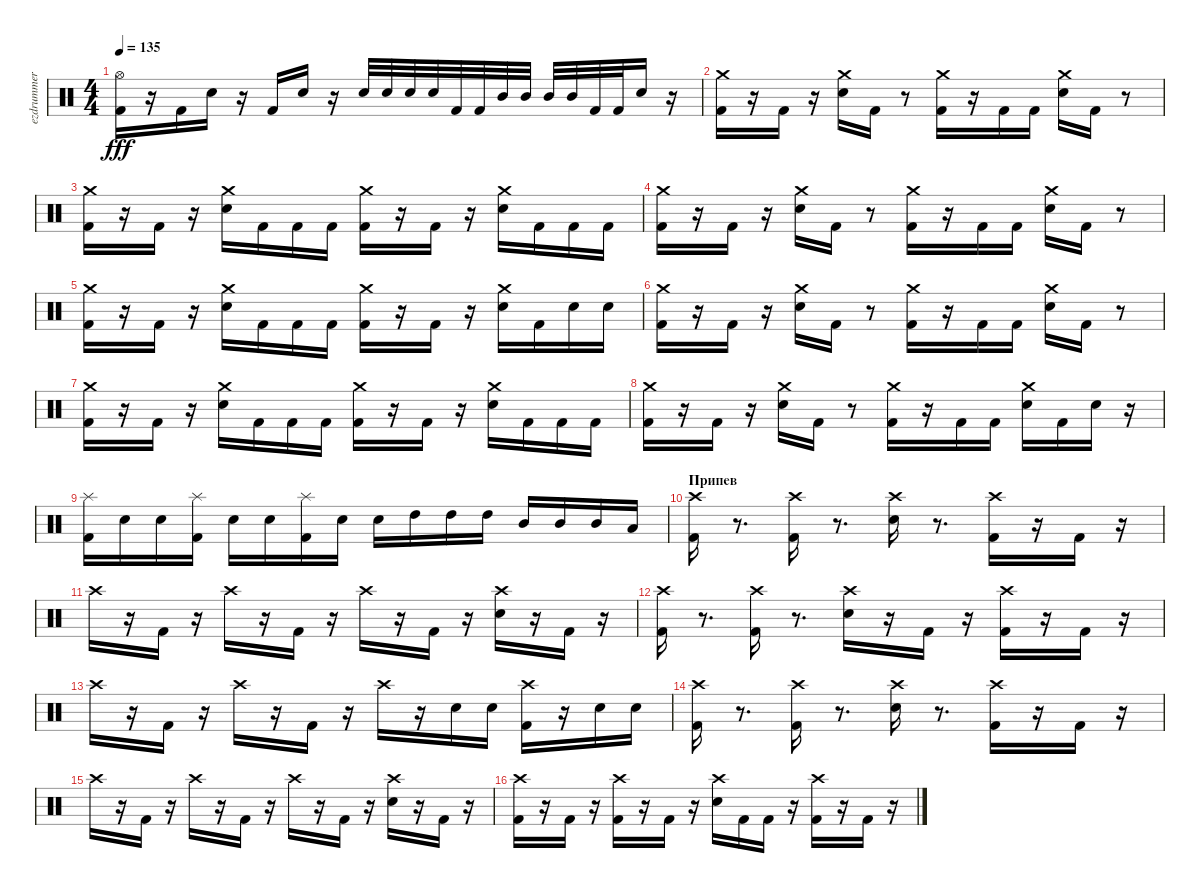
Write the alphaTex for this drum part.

\track ("ezdrummer 01" "ezdrummer ") {instrument percussion}
\staff {score}
\articulation defaults
\ts (4 4)
\tempo 135
\clef neutral
\ks c
("Kick (hit) 2" "Hi-Hat (open)").16{dy fff} r.16 "Kick (hit) 2".16 "Snare (hit) 2".16 r.16 "Kick (hit) 2".16 "Snare (hit) 2".16 r.16 "Snare (hit) 2".32 "Snare (hit) 2".32 "Snare (hit) 2".32 "Snare (hit) 2".32 "Kick (hit) 2".32 "Kick (hit) 2".32 "Mid Tom (hit)".32 "Mid Tom (hit)".32 "Mid Tom (hit)".32 "Mid Tom (hit)".32 "Kick (hit) 2".32 "Kick (hit) 2".32 "Snare (hit) 2".16 r.16 |
("Kick (hit) 2" "Crash medium (hit)").16 r.16 "Kick (hit) 2".16 r.16 ("Snare (hit) 2" "Crash medium (hit)").16 "Kick (hit) 2".16 r.8 ("Kick (hit) 2" "Crash medium (hit)").16 r.16 "Kick (hit) 2".16 "Kick (hit) 2".16 ("Snare (hit) 2" "Crash medium (hit)").16 "Kick (hit) 2".16 r.8 |
("Kick (hit) 2" "Crash medium (hit)").16 r.16 "Kick (hit) 2".16 r.16 ("Snare (hit) 2" "Crash medium (hit)").16 "Kick (hit) 2".16 "Kick (hit) 2".16 "Kick (hit) 2".16 ("Kick (hit) 2" "Crash medium (hit)").16 r.16 "Kick (hit) 2".16 r.16 ("Snare (hit) 2" "Crash medium (hit)").16 "Kick (hit) 2".16 "Kick (hit) 2".16 "Kick (hit) 2".16 |
("Kick (hit) 2" "Crash medium (hit)").16 r.16 "Kick (hit) 2".16 r.16 ("Snare (hit) 2" "Crash medium (hit)").16 "Kick (hit) 2".16 r.8 ("Kick (hit) 2" "Crash medium (hit)").16 r.16 "Kick (hit) 2".16 "Kick (hit) 2".16 ("Snare (hit) 2" "Crash medium (hit)").16 "Kick (hit) 2".16 r.8 |
("Kick (hit) 2" "Crash medium (hit)").16 r.16 "Kick (hit) 2".16 r.16 ("Snare (hit) 2" "Crash medium (hit)").16 "Kick (hit) 2".16 "Kick (hit) 2".16 "Kick (hit) 2".16 ("Kick (hit) 2" "Crash medium (hit)").16 r.16 "Kick (hit) 2".16 r.16 ("Snare (hit) 2" "Crash medium (hit)").16 "Kick (hit) 2".16 "Snare (hit) 2".16 "Snare (hit) 2".16 |
("Kick (hit) 2" "Crash medium (hit)").16 r.16 "Kick (hit) 2".16 r.16 ("Snare (hit) 2" "Crash medium (hit)").16 "Kick (hit) 2".16 r.8 ("Kick (hit) 2" "Crash medium (hit)").16 r.16 "Kick (hit) 2".16 "Kick (hit) 2".16 ("Snare (hit) 2" "Crash medium (hit)").16 "Kick (hit) 2".16 r.8 |
("Kick (hit) 2" "Crash medium (hit)").16 r.16 "Kick (hit) 2".16 r.16 ("Snare (hit) 2" "Crash medium (hit)").16 "Kick (hit) 2".16 "Kick (hit) 2".16 "Kick (hit) 2".16 ("Kick (hit) 2" "Crash medium (hit)").16 r.16 "Kick (hit) 2".16 r.16 ("Snare (hit) 2" "Crash medium (hit)").16 "Kick (hit) 2".16 "Kick (hit) 2".16 "Kick (hit) 2".16 |
("Kick (hit) 2" "Crash medium (hit)").16 r.16 "Kick (hit) 2".16 r.16 ("Snare (hit) 2" "Crash medium (hit)").16 "Kick (hit) 2".16 r.8 ("Kick (hit) 2" "Crash medium (hit)").16 r.16 "Kick (hit) 2".16 "Kick (hit) 2".16 ("Snare (hit) 2" "Crash medium (hit)").16 "Kick (hit) 2".16 "Snare (hit) 2".16 r.16 |
("Kick (hit) 2" "Splash (hit)").16 "Snare (hit) 2".16 "Snare (hit) 2".16 ("Kick (hit) 2" "Splash (hit)").16 "Snare (hit) 2".16 "Snare (hit) 2".16 ("Kick (hit) 2" "Splash (hit)").16 "Snare (hit) 2".16 "Snare (hit) 2".16 "High Tom (hit)".16 "High Tom (hit)".16 "High Tom (hit)".16 "Mid Tom (hit)".16 "Mid Tom (hit)".16 "Mid Tom (hit)".16 "Low Tom (hit)".16 |
\section ("" "Припев")
("Kick (hit) 2" "Crash high (hit)").16 r.8{d} ("Kick (hit) 2" "Crash high (hit)").16 r.8{d} ("Snare (hit) 2" "Crash high (hit)").16 r.8{d} ("Kick (hit) 2" "Crash high (hit)").16 r.16 "Kick (hit) 2".16 r.16 |
"Crash high (hit)".16 r.16 "Kick (hit) 2".16 r.16 "Crash high (hit)".16 r.16 "Kick (hit) 2".16 r.16 "Crash high (hit)".16 r.16 "Kick (hit) 2".16 r.16 ("Snare (hit) 2" "Crash high (hit)").16 r.16 "Kick (hit) 2".16 r.16 |
("Kick (hit) 2" "Crash high (hit)").16 r.8{d} ("Kick (hit) 2" "Crash high (hit)").16 r.8{d} ("Snare (hit) 2" "Crash high (hit)").16 r.16 "Kick (hit) 2".16 r.16 ("Kick (hit) 2" "Crash high (hit)").16 r.16 "Kick (hit) 2".16 r.16 |
"Crash high (hit)".16 r.16 "Kick (hit) 2".16 r.16 "Crash high (hit)".16 r.16 "Kick (hit) 2".16 r.16 "Crash high (hit)".16 r.16 "Snare (hit) 2".16 "Snare (hit) 2".16 ("Kick (hit) 2" "Crash high (hit)").16 r.16 "Snare (hit) 2".16 "Snare (hit) 2".16 |
("Kick (hit) 2" "Crash high (hit)").16 r.8{d} ("Kick (hit) 2" "Crash high (hit)").16 r.8{d} ("Snare (hit) 2" "Crash high (hit)").16 r.8{d} ("Kick (hit) 2" "Crash high (hit)").16 r.16 "Kick (hit) 2".16 r.16 |
"Crash high (hit)".16 r.16 "Kick (hit) 2".16 r.16 "Crash high (hit)".16 r.16 "Kick (hit) 2".16 r.16 "Crash high (hit)".16 r.16 "Kick (hit) 2".16 r.16 ("Snare (hit) 2" "Crash high (hit)").16 r.16 "Kick (hit) 2".16 r.16 |
("Kick (hit) 2" "Crash high (hit)").16 r.16 "Kick (hit) 2".16 r.16 ("Kick (hit) 2" "Crash high (hit)").16 r.16 "Kick (hit) 2".16 r.16 ("Snare (hit) 2" "Crash high (hit)").16 "Kick (hit) 2".16 "Kick (hit) 2".16 r.16 ("Kick (hit) 2" "Crash high (hit)").16 r.16 "Kick (hit) 2".16 r.16
